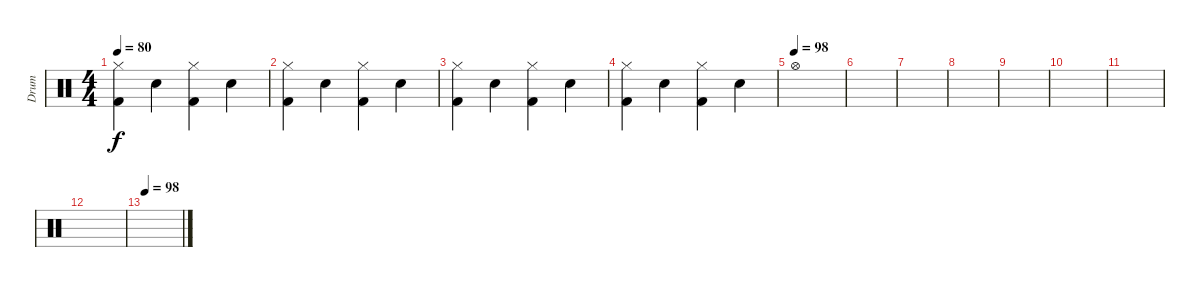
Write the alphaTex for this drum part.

\track ("Drum" "Drum") {instrument percussion}
\staff {score}
\articulation defaults
\ts (4 4)
\tempo 80
\clef neutral
\ks c
("Hi-Hat (closed)" "Kick (hit) 2").4{dy f} "Electric Snare (hit)".4 ("Hi-Hat (closed)" "Kick (hit) 2").4 "Electric Snare (hit)".4 |
("Hi-Hat (closed)" "Kick (hit) 2").4 "Electric Snare (hit)".4 ("Hi-Hat (closed)" "Kick (hit) 2").4 "Electric Snare (hit)".4 |
("Hi-Hat (closed)" "Kick (hit) 2").4 "Electric Snare (hit)".4 ("Hi-Hat (closed)" "Kick (hit) 2").4 "Electric Snare (hit)".4 |
("Hi-Hat (closed)" "Kick (hit) 2").4 "Electric Snare (hit)".4 ("Hi-Hat (closed)" "Kick (hit) 2").4 "Electric Snare (hit)".4 |
\tempo (98)
"Hi-Hat (open)".1 |
|
|
|
|
|
|
|
\tempo 98
